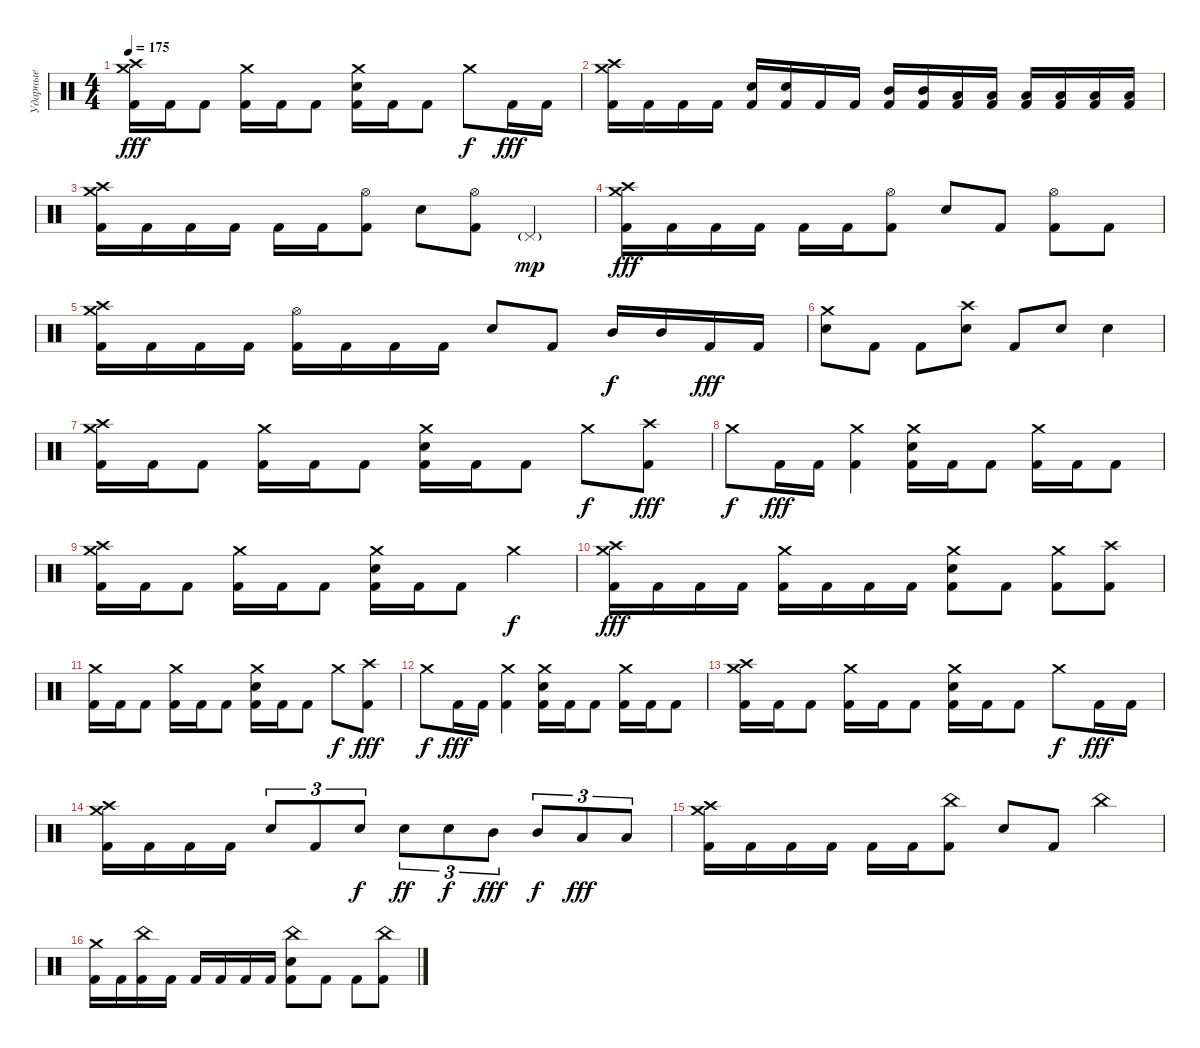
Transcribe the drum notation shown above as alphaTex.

\track ("Ударные" "Ударные") {instrument percussion}
\staff {score}
\articulation defaults
\ts (4 4)
\tempo 175
\clef neutral
\ks c
("Crash high (hit)" "Crash medium (hit)" "Kick (hit) 2").16{dy fff} "Kick (hit) 2".16 "Kick (hit) 2".8 ("Crash medium (hit)" "Kick (hit) 2").16 "Kick (hit) 2".16 "Kick (hit) 2".8 ("Crash medium (hit)" "Electric Snare (hit)" "Kick (hit) 2").16 "Kick (hit) 2".16 "Kick (hit) 2".8 "Crash medium (hit)".8{dy f} "Kick (hit) 2".16{dy fff} "Kick (hit) 2".16 |
("Crash high (hit)" "Crash medium (hit)" "Kick (hit) 2").16 "Kick (hit) 2".16 "Kick (hit) 2".16 "Kick (hit) 2".16 ("Electric Snare (hit)" "Kick (hit) 2").16 ("Electric Snare (hit)" "Kick (hit) 2").16 "Kick (hit) 2".16 "Kick (hit) 2".16 ("Mid Tom (hit)" "Kick (hit) 2").16 ("Mid Tom (hit)" "Kick (hit) 2").16 ("Low Tom (hit)" "Kick (hit) 2").16 ("Low Tom (hit)" "Kick (hit) 2").16 ("Low Floor Tom (hit)" "Kick (hit) 2").16 ("Low Floor Tom (hit)" "Kick (hit) 2").16 ("Low Floor Tom (hit)" "Kick (hit) 2").16 ("Low Floor Tom (hit)" "Kick (hit) 2").16 |
("Crash high (hit)" "Crash medium (hit)" "Kick (hit) 2").16 "Kick (hit) 2".16 "Kick (hit) 2".16 "Kick (hit) 2".16 "Kick (hit) 2".16 "Kick (hit) 2".16 ("Hi-Hat (open)" "Kick (hit) 2").8 "Electric Snare (hit)".8 ("Hi-Hat (open)" "Kick (hit) 2").8 "Pedal Hi-Hat (hit)"{g}.4{dy mp} |
("Crash high (hit)" "Crash medium (hit)" "Kick (hit) 2").16{dy fff} "Kick (hit) 2".16 "Kick (hit) 2".16 "Kick (hit) 2".16 "Kick (hit) 2".16 "Kick (hit) 2".16 ("Hi-Hat (open)" "Kick (hit) 2").8 "Electric Snare (hit)".8 "Kick (hit) 2".8 ("Hi-Hat (open)" "Kick (hit) 2").8 "Kick (hit) 2".8 |
("Crash high (hit)" "Crash medium (hit)" "Kick (hit) 2").16 "Kick (hit) 2".16 "Kick (hit) 2".16 "Kick (hit) 2".16 ("Hi-Hat (open)" "Kick (hit) 2").16 "Kick (hit) 2".16 "Kick (hit) 2".16 "Kick (hit) 2".16 "Electric Snare (hit)".8 "Kick (hit) 2".8 "Mid Tom (hit)".16{dy f} "Mid Tom (hit)".16 "Kick (hit) 2".16{dy fff} "Kick (hit) 2".16 |
("Crash medium (hit)" "Electric Snare (hit)").8 "Kick (hit) 2".8 "Kick (hit) 2".8 ("Crash high (hit)" "Electric Snare (hit)").8 "Kick (hit) 2".8 "Electric Snare (hit)".8 "Electric Snare (hit)".4 |
("Crash high (hit)" "Crash medium (hit)" "Kick (hit) 2").16 "Kick (hit) 2".16 "Kick (hit) 2".8 ("Crash medium (hit)" "Kick (hit) 2").16 "Kick (hit) 2".16 "Kick (hit) 2".8 ("Crash medium (hit)" "Electric Snare (hit)" "Kick (hit) 2").16 "Kick (hit) 2".16 "Kick (hit) 2".8 "Crash medium (hit)".8{dy f} ("Crash high (hit)" "Kick (hit) 2").8{dy fff} |
"Crash medium (hit)".8{dy f} "Kick (hit) 2".16{dy fff} "Kick (hit) 2".16 ("Crash medium (hit)" "Kick (hit) 2").4 ("Crash medium (hit)" "Electric Snare (hit)" "Kick (hit) 2").16 "Kick (hit) 2".16 "Kick (hit) 2".8 ("Crash medium (hit)" "Kick (hit) 2").16 "Kick (hit) 2".16 "Kick (hit) 2".8 |
("Crash high (hit)" "Crash medium (hit)" "Kick (hit) 2").16 "Kick (hit) 2".16 "Kick (hit) 2".8 ("Crash medium (hit)" "Kick (hit) 2").16 "Kick (hit) 2".16 "Kick (hit) 2".8 ("Crash medium (hit)" "Electric Snare (hit)" "Kick (hit) 2").16 "Kick (hit) 2".16 "Kick (hit) 2".8 "Crash medium (hit)".4{dy f} |
("Crash high (hit)" "Crash medium (hit)" "Kick (hit) 2").16{dy fff} "Kick (hit) 2".16 "Kick (hit) 2".16 "Kick (hit) 2".16 ("Crash medium (hit)" "Kick (hit) 2").16 "Kick (hit) 2".16 "Kick (hit) 2".16 "Kick (hit) 2".16 ("Crash medium (hit)" "Electric Snare (hit)" "Kick (hit) 2").8 "Kick (hit) 2".8 ("Crash medium (hit)" "Kick (hit) 2").8 ("Crash high (hit)" "Kick (hit) 2").8 |
("Crash medium (hit)" "Kick (hit) 2").16 "Kick (hit) 2".16 "Kick (hit) 2".8 ("Crash medium (hit)" "Kick (hit) 2").16 "Kick (hit) 2".16 "Kick (hit) 2".8 ("Crash medium (hit)" "Electric Snare (hit)" "Kick (hit) 2").16 "Kick (hit) 2".16 "Kick (hit) 2".8 "Crash medium (hit)".8{dy f} ("Crash high (hit)" "Kick (hit) 2").8{dy fff} |
"Crash medium (hit)".8{dy f} "Kick (hit) 2".16{dy fff} "Kick (hit) 2".16 ("Crash medium (hit)" "Kick (hit) 2").4 ("Crash medium (hit)" "Electric Snare (hit)" "Kick (hit) 2").16 "Kick (hit) 2".16 "Kick (hit) 2".8 ("Crash medium (hit)" "Kick (hit) 2").16 "Kick (hit) 2".16 "Kick (hit) 2".8 |
("Crash high (hit)" "Crash medium (hit)" "Kick (hit) 2").16 "Kick (hit) 2".16 "Kick (hit) 2".8 ("Crash medium (hit)" "Kick (hit) 2").16 "Kick (hit) 2".16 "Kick (hit) 2".8 ("Crash medium (hit)" "Electric Snare (hit)" "Kick (hit) 2").16 "Kick (hit) 2".16 "Kick (hit) 2".8 "Crash medium (hit)".8{dy f} "Kick (hit) 2".16{dy fff} "Kick (hit) 2".16 |
("Crash high (hit)" "Crash medium (hit)" "Kick (hit) 2").16 "Kick (hit) 2".16 "Kick (hit) 2".16 "Kick (hit) 2".16 "Electric Snare (hit)".8{tu (3 2)} "Kick (hit) 2".8{tu (3 2)} "Electric Snare (hit)".8{tu (3 2) dy f} "Electric Snare (hit)".8{tu (3 2) dy ff} "Electric Snare (hit)".8{tu (3 2) dy f} "Mid Tom (hit)".8{tu (3 2) dy fff} "Mid Tom (hit)".8{tu (3 2) dy f} "Low Tom (hit)".8{tu (3 2) dy fff} "Low Floor Tom (hit)".8{tu (3 2)} |
("Crash high (hit)" "Crash medium (hit)" "Kick (hit) 2").16 "Kick (hit) 2".16 "Kick (hit) 2".16 "Kick (hit) 2".16 "Kick (hit) 2".16 "Kick (hit) 2".16 ("China (hit)" "Kick (hit) 2").8 "Electric Snare (hit)".8 "Kick (hit) 2".8 "China (hit)".4 |
("Crash medium (hit)" "Kick (hit) 2").16 "Kick (hit) 2".16 ("China (hit)" "Kick (hit) 2").16 "Kick (hit) 2".16 "Kick (hit) 2".16 "Kick (hit) 2".16 "Kick (hit) 2".16 "Kick (hit) 2".16 ("China (hit)" "Electric Snare (hit)" "Kick (hit) 2").8 "Kick (hit) 2".8 "Kick (hit) 2".8 ("China (hit)" "Kick (hit) 2").8
